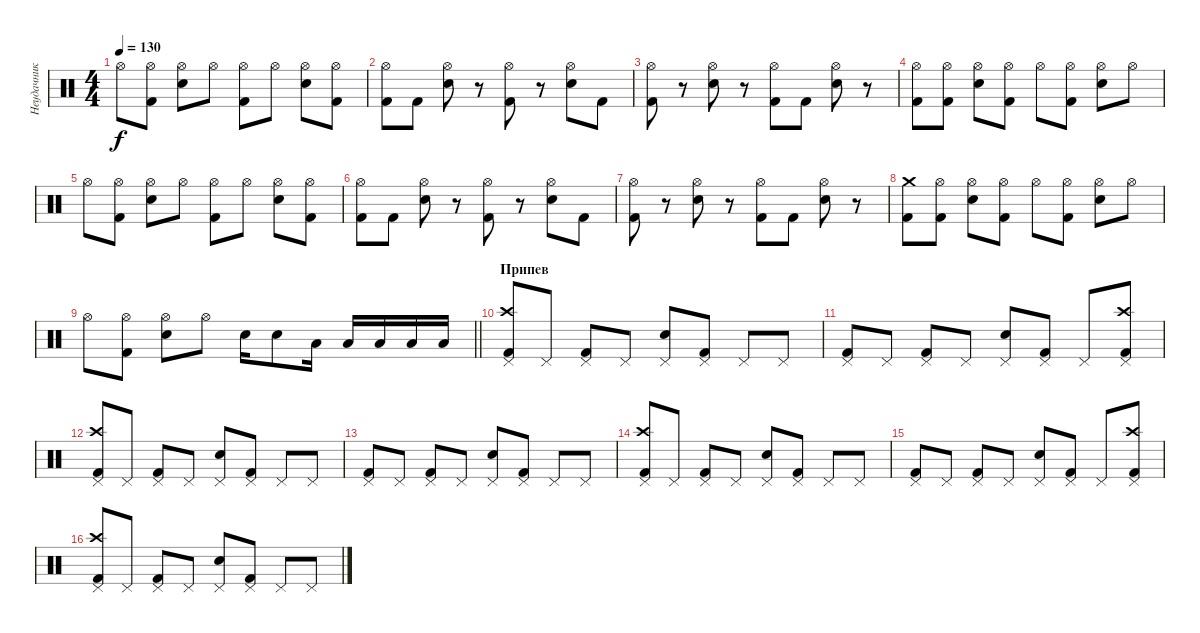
\track ("Неудачник" "Неудачник") {instrument percussion}
\staff {score}
\articulation defaults
\ts (4 4)
\tempo 130
\clef neutral
\ks c "Hi-Hat (open)".8{dy f}
("Hi-Hat (open)" "Kick (hit) 2").8 ("Hi-Hat (open)" "Electric Snare (hit)").8 "Hi-Hat (open)".8 ("Hi-Hat (open)" "Kick (hit) 2").8 "Hi-Hat (open)".8 ("Hi-Hat (open)" "Electric Snare (hit)").8 ("Hi-Hat (open)" "Kick (hit) 2").8 |
("Hi-Hat (open)" "Kick (hit) 2").8 "Kick (hit) 2".8 ("Hi-Hat (open)" "Electric Snare (hit)").8 r.8 ("Hi-Hat (open)" "Kick (hit) 2").8 r.8 ("Hi-Hat (open)" "Electric Snare (hit)").8 "Kick (hit) 2".8 |
("Hi-Hat (open)" "Kick (hit) 2").8 r.8 ("Hi-Hat (open)" "Electric Snare (hit)").8 r.8 ("Hi-Hat (open)" "Kick (hit) 2").8 "Kick (hit) 2".8 ("Hi-Hat (open)" "Electric Snare (hit)").8 r.8 |
("Hi-Hat (open)" "Kick (hit) 2").8 ("Hi-Hat (open)" "Kick (hit) 2").8 ("Hi-Hat (open)" "Electric Snare (hit)").8 ("Hi-Hat (open)" "Kick (hit) 2").8 "Hi-Hat (open)".8 ("Hi-Hat (open)" "Kick (hit) 2").8 ("Hi-Hat (open)" "Electric Snare (hit)").8 "Hi-Hat (open)".8 |
"Hi-Hat (open)".8 ("Hi-Hat (open)" "Kick (hit) 2").8 ("Hi-Hat (open)" "Electric Snare (hit)").8 "Hi-Hat (open)".8 ("Hi-Hat (open)" "Kick (hit) 2").8 "Hi-Hat (open)".8 ("Hi-Hat (open)" "Electric Snare (hit)").8 ("Hi-Hat (open)" "Kick (hit) 2").8 |
("Hi-Hat (open)" "Kick (hit) 2").8 "Kick (hit) 2".8 ("Hi-Hat (open)" "Electric Snare (hit)").8 r.8 ("Hi-Hat (open)" "Kick (hit) 2").8 r.8 ("Hi-Hat (open)" "Electric Snare (hit)").8 "Kick (hit) 2".8 |
("Hi-Hat (open)" "Kick (hit) 2").8 r.8 ("Hi-Hat (open)" "Electric Snare (hit)").8 r.8 ("Hi-Hat (open)" "Kick (hit) 2").8 "Kick (hit) 2".8 ("Hi-Hat (open)" "Electric Snare (hit)").8 r.8 |
("Crash medium (hit)" "Kick (hit) 2").8 ("Hi-Hat (open)" "Kick (hit) 2").8 ("Hi-Hat (open)" "Electric Snare (hit)").8 ("Hi-Hat (open)" "Kick (hit) 2").8 "Hi-Hat (open)".8 ("Hi-Hat (open)" "Kick (hit) 2").8 ("Hi-Hat (open)" "Electric Snare (hit)").8 "Hi-Hat (open)".8 |
\barLineRight lightlight "Hi-Hat (open)".8
("Hi-Hat (open)" "Kick (hit) 2").8 ("Hi-Hat (open)" "Electric Snare (hit)").8 "Hi-Hat (open)".8 "Electric Snare (hit)".16 "Electric Snare (hit)".8 "Low Floor Tom (hit)".16 "Low Floor Tom (hit)".16 "Low Tom (hit)".16 "Low Tom (hit)".16 "Low Tom (hit)".16 |
\section ("" "Припев")
("Crash high (hit)" "Pedal Hi-Hat (hit)" "Kick (hit) 2").8 "Pedal Hi-Hat (hit)".8 ("Pedal Hi-Hat (hit)" "Kick (hit) 2").8 "Pedal Hi-Hat (hit)".8 ("Pedal Hi-Hat (hit)" "Electric Snare (hit)").8 ("Pedal Hi-Hat (hit)" "Kick (hit) 2").8 "Pedal Hi-Hat (hit)".8 "Pedal Hi-Hat (hit)".8 |
("Pedal Hi-Hat (hit)" "Kick (hit) 2").8 "Pedal Hi-Hat (hit)".8 ("Pedal Hi-Hat (hit)" "Kick (hit) 2").8 "Pedal Hi-Hat (hit)".8 ("Pedal Hi-Hat (hit)" "Electric Snare (hit)").8 ("Pedal Hi-Hat (hit)" "Kick (hit) 2").8 "Pedal Hi-Hat (hit)".8 ("Crash high (hit)" "Pedal Hi-Hat (hit)" "Kick (hit) 2").8 |
("Crash high (hit)" "Pedal Hi-Hat (hit)" "Kick (hit) 2").8 "Pedal Hi-Hat (hit)".8 ("Pedal Hi-Hat (hit)" "Kick (hit) 2").8 "Pedal Hi-Hat (hit)".8 ("Pedal Hi-Hat (hit)" "Electric Snare (hit)").8 ("Pedal Hi-Hat (hit)" "Kick (hit) 2").8 "Pedal Hi-Hat (hit)".8 "Pedal Hi-Hat (hit)".8 |
("Pedal Hi-Hat (hit)" "Kick (hit) 2").8 "Pedal Hi-Hat (hit)".8 ("Pedal Hi-Hat (hit)" "Kick (hit) 2").8 "Pedal Hi-Hat (hit)".8 ("Pedal Hi-Hat (hit)" "Electric Snare (hit)").8 ("Pedal Hi-Hat (hit)" "Kick (hit) 2").8 "Pedal Hi-Hat (hit)".8 "Pedal Hi-Hat (hit)".8 |
("Crash high (hit)" "Pedal Hi-Hat (hit)" "Kick (hit) 2").8 "Pedal Hi-Hat (hit)".8 ("Pedal Hi-Hat (hit)" "Kick (hit) 2").8 "Pedal Hi-Hat (hit)".8 ("Pedal Hi-Hat (hit)" "Electric Snare (hit)").8 ("Pedal Hi-Hat (hit)" "Kick (hit) 2").8 "Pedal Hi-Hat (hit)".8 "Pedal Hi-Hat (hit)".8 |
("Pedal Hi-Hat (hit)" "Kick (hit) 2").8 "Pedal Hi-Hat (hit)".8 ("Pedal Hi-Hat (hit)" "Kick (hit) 2").8 "Pedal Hi-Hat (hit)".8 ("Pedal Hi-Hat (hit)" "Electric Snare (hit)").8 ("Pedal Hi-Hat (hit)" "Kick (hit) 2").8 "Pedal Hi-Hat (hit)".8 ("Crash high (hit)" "Pedal Hi-Hat (hit)" "Kick (hit) 2").8 |
("Crash high (hit)" "Pedal Hi-Hat (hit)" "Kick (hit) 2").8 "Pedal Hi-Hat (hit)".8 ("Pedal Hi-Hat (hit)" "Kick (hit) 2").8 "Pedal Hi-Hat (hit)".8 ("Pedal Hi-Hat (hit)" "Electric Snare (hit)").8 ("Pedal Hi-Hat (hit)" "Kick (hit) 2").8 "Pedal Hi-Hat (hit)".8 "Pedal Hi-Hat (hit)".8
